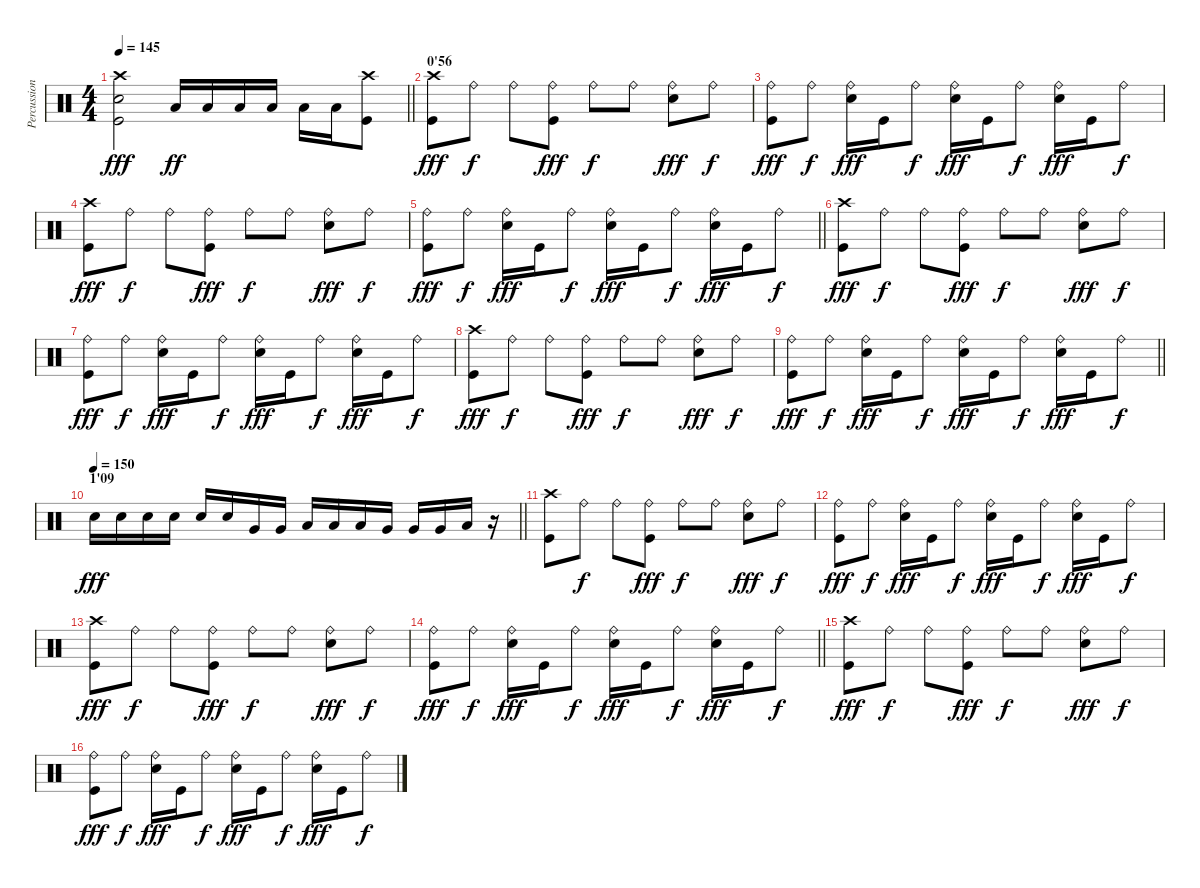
\track ("Percussions" "Percussion") {instrument percussion}
\staff {score}
\articulation defaults
\ts (4 4)
\tempo 145
\clef neutral
\barLineRight lightlight
\ks c
("Crash high (hit)" "Electric Snare (hit)" "Kick (hit)").2{dy fff} "Low Floor Tom (hit)".16{dy ff} "Low Floor Tom (hit)".16 "Low Floor Tom (hit)".16 "Low Floor Tom (hit)".16 "Low Floor Tom (hit)".16 "Low Floor Tom (hit)".16 ("Crash high (hit)" "Kick (hit)").8 |
\section ("" "0'56")
("Crash high (hit)" "Kick (hit)").8{dy fff} "Ride (bell)".8{dy f} "Ride (bell)".8 ("Ride (bell)" "Kick (hit)").8{dy fff} "Ride (bell)".8{dy f} "Ride (bell)".8 ("Ride (bell)" "Electric Snare (hit)").8{dy fff} "Ride (bell)".8{dy f} |
("Ride (bell)" "Kick (hit)").8{dy fff} "Ride (bell)".8{dy f} ("Ride (bell)" "Electric Snare (hit)").16{dy fff} "Kick (hit)".16 "Ride (bell)".8{dy f} ("Ride (bell)" "Electric Snare (hit)").16{dy fff} "Kick (hit)".16 "Ride (bell)".8{dy f} ("Ride (bell)" "Electric Snare (hit)").16{dy fff} "Kick (hit)".16 "Ride (bell)".8{dy f} |
("Crash high (hit)" "Kick (hit)").8{dy fff} "Ride (bell)".8{dy f} "Ride (bell)".8 ("Ride (bell)" "Kick (hit)").8{dy fff} "Ride (bell)".8{dy f} "Ride (bell)".8 ("Ride (bell)" "Electric Snare (hit)").8{dy fff} "Ride (bell)".8{dy f} |
\barLineRight lightlight
("Ride (bell)" "Kick (hit)").8{dy fff} "Ride (bell)".8{dy f} ("Ride (bell)" "Electric Snare (hit)").16{dy fff} "Kick (hit)".16 "Ride (bell)".8{dy f} ("Ride (bell)" "Electric Snare (hit)").16{dy fff} "Kick (hit)".16 "Ride (bell)".8{dy f} ("Ride (bell)" "Electric Snare (hit)").16{dy fff} "Kick (hit)".16 "Ride (bell)".8{dy f} |
("Crash high (hit)" "Kick (hit)").8{dy fff} "Ride (bell)".8{dy f} "Ride (bell)".8 ("Ride (bell)" "Kick (hit)").8{dy fff} "Ride (bell)".8{dy f} "Ride (bell)".8 ("Ride (bell)" "Electric Snare (hit)").8{dy fff} "Ride (bell)".8{dy f} |
("Ride (bell)" "Kick (hit)").8{dy fff} "Ride (bell)".8{dy f} ("Ride (bell)" "Electric Snare (hit)").16{dy fff} "Kick (hit)".16 "Ride (bell)".8{dy f} ("Ride (bell)" "Electric Snare (hit)").16{dy fff} "Kick (hit)".16 "Ride (bell)".8{dy f} ("Ride (bell)" "Electric Snare (hit)").16{dy fff} "Kick (hit)".16 "Ride (bell)".8{dy f} |
("Crash high (hit)" "Kick (hit)").8{dy fff} "Ride (bell)".8{dy f} "Ride (bell)".8 ("Ride (bell)" "Kick (hit)").8{dy fff} "Ride (bell)".8{dy f} "Ride (bell)".8 ("Ride (bell)" "Electric Snare (hit)").8{dy fff} "Ride (bell)".8{dy f} |
\barLineRight lightlight
("Ride (bell)" "Kick (hit)").8{dy fff} "Ride (bell)".8{dy f} ("Ride (bell)" "Electric Snare (hit)").16{dy fff} "Kick (hit)".16 "Ride (bell)".8{dy f} ("Ride (bell)" "Electric Snare (hit)").16{dy fff} "Kick (hit)".16 "Ride (bell)".8{dy f} ("Ride (bell)" "Electric Snare (hit)").16{dy fff} "Kick (hit)".16 "Ride (bell)".8{dy f} |
\section ("" "1'09")
\tempo 150
\barLineRight lightlight "Electric Snare (hit)".16{dy fff} "Electric Snare (hit)".16 "Electric Snare (hit)".16 "Electric Snare (hit)".16 "Electric Snare (hit)".16 "Electric Snare (hit)".16 "Very Low Tom (hit)".16 "Very Low Tom (hit)".16 "Low Tom (hit)".16 "Low Tom (hit)".16 "Low Tom (hit)".16 "Very Low Tom (hit)".16 "Very Low Tom (hit)".16 "Very Low Tom (hit)".16 "Low Floor Tom (hit)".16
r.16 |
("Crash high (hit)" "Kick (hit)").8 "Ride (bell)".8{dy f} "Ride (bell)".8 ("Ride (bell)" "Kick (hit)").8{dy fff} "Ride (bell)".8{dy f} "Ride (bell)".8 ("Ride (bell)" "Electric Snare (hit)").8{dy fff} "Ride (bell)".8{dy f} |
("Ride (bell)" "Kick (hit)").8{dy fff} "Ride (bell)".8{dy f} ("Ride (bell)" "Electric Snare (hit)").16{dy fff} "Kick (hit)".16 "Ride (bell)".8{dy f} ("Ride (bell)" "Electric Snare (hit)").16{dy fff} "Kick (hit)".16 "Ride (bell)".8{dy f} ("Ride (bell)" "Electric Snare (hit)").16{dy fff} "Kick (hit)".16 "Ride (bell)".8{dy f} |
("Crash high (hit)" "Kick (hit)").8{dy fff} "Ride (bell)".8{dy f} "Ride (bell)".8 ("Ride (bell)" "Kick (hit)").8{dy fff} "Ride (bell)".8{dy f} "Ride (bell)".8 ("Ride (bell)" "Electric Snare (hit)").8{dy fff} "Ride (bell)".8{dy f} |
\barLineRight lightlight
("Ride (bell)" "Kick (hit)").8{dy fff} "Ride (bell)".8{dy f} ("Ride (bell)" "Electric Snare (hit)").16{dy fff} "Kick (hit)".16 "Ride (bell)".8{dy f} ("Ride (bell)" "Electric Snare (hit)").16{dy fff} "Kick (hit)".16 "Ride (bell)".8{dy f} ("Ride (bell)" "Electric Snare (hit)").16{dy fff} "Kick (hit)".16 "Ride (bell)".8{dy f} |
("Crash high (hit)" "Kick (hit)").8{dy fff} "Ride (bell)".8{dy f} "Ride (bell)".8 ("Ride (bell)" "Kick (hit)").8{dy fff} "Ride (bell)".8{dy f} "Ride (bell)".8 ("Ride (bell)" "Electric Snare (hit)").8{dy fff} "Ride (bell)".8{dy f} |
("Ride (bell)" "Kick (hit)").8{dy fff} "Ride (bell)".8{dy f} ("Ride (bell)" "Electric Snare (hit)").16{dy fff} "Kick (hit)".16 "Ride (bell)".8{dy f} ("Ride (bell)" "Electric Snare (hit)").16{dy fff} "Kick (hit)".16 "Ride (bell)".8{dy f} ("Ride (bell)" "Electric Snare (hit)").16{dy fff} "Kick (hit)".16 "Ride (bell)".8{dy f}
